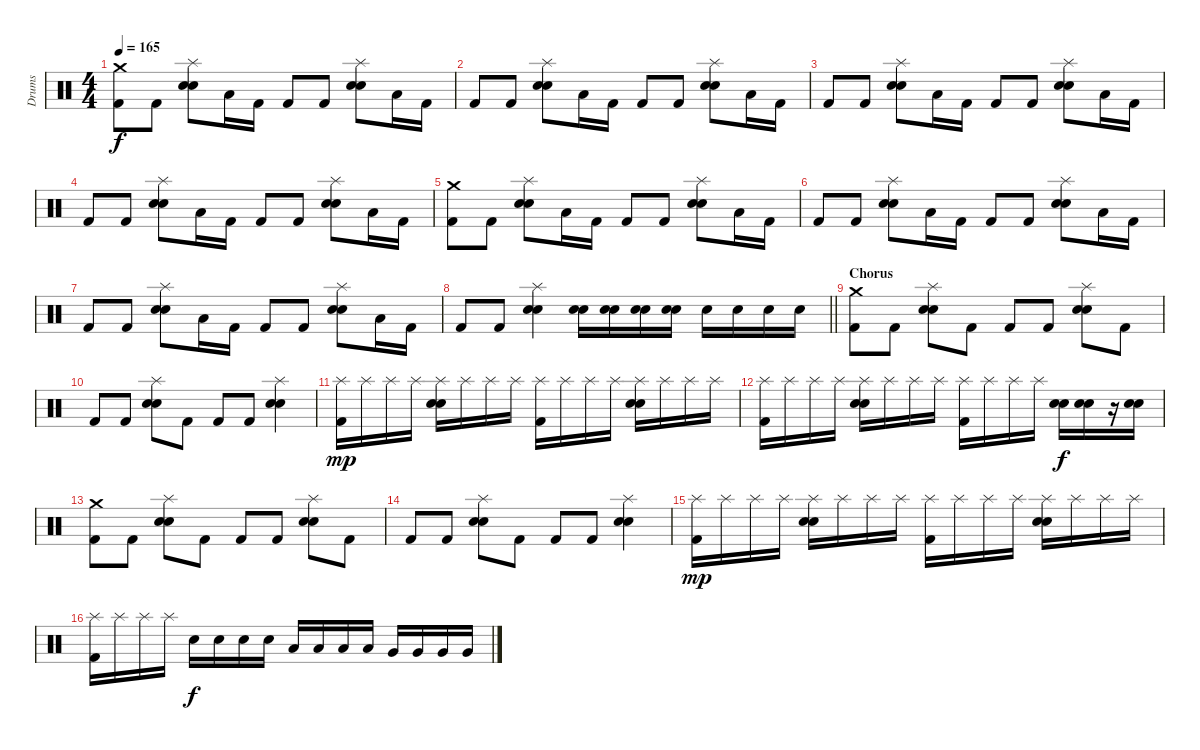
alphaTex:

\track ("Drums" "Drums") {instrument percussion}
\staff {score}
\articulation defaults
\ts (4 4)
\tempo 165
\clef neutral
\ks c
("Crash medium (hit)" "Kick (hit) 2").8{dy f} "Kick (hit) 2".8 ("Splash (hit)" "Electric Snare (hit)" "Snare (hit) 2").8 "Low Tom (hit)".16 "Kick (hit) 2".16 "Kick (hit) 2".8 "Kick (hit) 2".8 ("Splash (hit)" "Electric Snare (hit)" "Snare (hit) 2").8 "Low Tom (hit)".16 "Kick (hit) 2".16 |
"Kick (hit) 2".8 "Kick (hit) 2".8 ("Splash (hit)" "Electric Snare (hit)" "Snare (hit) 2").8 "Low Tom (hit)".16 "Kick (hit) 2".16 "Kick (hit) 2".8 "Kick (hit) 2".8 ("Splash (hit)" "Electric Snare (hit)" "Snare (hit) 2").8 "Low Tom (hit)".16 "Kick (hit) 2".16 |
"Kick (hit) 2".8 "Kick (hit) 2".8 ("Splash (hit)" "Electric Snare (hit)" "Snare (hit) 2").8 "Low Tom (hit)".16 "Kick (hit) 2".16 "Kick (hit) 2".8 "Kick (hit) 2".8 ("Splash (hit)" "Electric Snare (hit)" "Snare (hit) 2").8 "Low Tom (hit)".16 "Kick (hit) 2".16 |
"Kick (hit) 2".8 "Kick (hit) 2".8 ("Splash (hit)" "Electric Snare (hit)" "Snare (hit) 2").8 "Low Tom (hit)".16 "Kick (hit) 2".16 "Kick (hit) 2".8 "Kick (hit) 2".8 ("Splash (hit)" "Electric Snare (hit)" "Snare (hit) 2").8 "Low Tom (hit)".16 "Kick (hit) 2".16 |
("Crash medium (hit)" "Kick (hit) 2").8 "Kick (hit) 2".8 ("Splash (hit)" "Electric Snare (hit)" "Snare (hit) 2").8 "Low Tom (hit)".16 "Kick (hit) 2".16 "Kick (hit) 2".8 "Kick (hit) 2".8 ("Splash (hit)" "Electric Snare (hit)" "Snare (hit) 2").8 "Low Tom (hit)".16 "Kick (hit) 2".16 |
"Kick (hit) 2".8 "Kick (hit) 2".8 ("Splash (hit)" "Electric Snare (hit)" "Snare (hit) 2").8 "Low Tom (hit)".16 "Kick (hit) 2".16 "Kick (hit) 2".8 "Kick (hit) 2".8 ("Splash (hit)" "Electric Snare (hit)" "Snare (hit) 2").8 "Low Tom (hit)".16 "Kick (hit) 2".16 |
"Kick (hit) 2".8 "Kick (hit) 2".8 ("Splash (hit)" "Electric Snare (hit)" "Snare (hit) 2").8 "Low Tom (hit)".16 "Kick (hit) 2".16 "Kick (hit) 2".8 "Kick (hit) 2".8 ("Splash (hit)" "Electric Snare (hit)" "Snare (hit) 2").8 "Low Tom (hit)".16 "Kick (hit) 2".16 |
\barLineRight lightlight "Kick (hit) 2".8 "Kick (hit) 2".8
("Splash (hit)" "Electric Snare (hit)" "Snare (hit) 2").4 ("Electric Snare (hit)" "Snare (hit) 2").16 ("Electric Snare (hit)" "Snare (hit) 2").16 ("Electric Snare (hit)" "Snare (hit) 2").16 ("Electric Snare (hit)" "Snare (hit) 2").16 "Electric Snare (hit)".16 "Electric Snare (hit)".16 "Electric Snare (hit)".16 "Electric Snare (hit)".16 |
\section ("" "Chorus")
("Crash medium (hit)" "Kick (hit) 2").8 "Kick (hit) 2".8 ("Splash (hit)" "Electric Snare (hit)" "Snare (hit) 2").8 "Kick (hit) 2".8 "Kick (hit) 2".8 "Kick (hit) 2".8 ("Splash (hit)" "Electric Snare (hit)" "Snare (hit) 2").8 "Kick (hit) 2".8 |
"Kick (hit) 2".8 "Kick (hit) 2".8 ("Splash (hit)" "Electric Snare (hit)" "Snare (hit) 2").8 "Kick (hit) 2".8 "Kick (hit) 2".8 "Kick (hit) 2".8 ("Splash (hit)" "Electric Snare (hit)" "Snare (hit) 2").4 |
("Splash (hit)" "Kick (hit) 2").16{dy mp} "Splash (hit)".16 "Splash (hit)".16 "Splash (hit)".16 ("Splash (hit)" "Electric Snare (hit)" "Snare (hit) 2").16 "Splash (hit)".16 "Splash (hit)".16 "Splash (hit)".16 ("Splash (hit)" "Kick (hit) 2").16 "Splash (hit)".16 "Splash (hit)".16 "Splash (hit)".16 ("Splash (hit)" "Electric Snare (hit)" "Snare (hit) 2").16 "Splash (hit)".16 "Splash (hit)".16 "Splash (hit)".16 |
("Splash (hit)" "Kick (hit) 2").16 "Splash (hit)".16 "Splash (hit)".16 "Splash (hit)".16 ("Splash (hit)" "Electric Snare (hit)" "Snare (hit) 2").16 "Splash (hit)".16 "Splash (hit)".16 "Splash (hit)".16 ("Splash (hit)" "Kick (hit) 2").16 "Splash (hit)".16 "Splash (hit)".16 "Splash (hit)".16 ("Electric Snare (hit)" "Snare (hit) 2").16{dy f} ("Electric Snare (hit)" "Snare (hit) 2").16 r.16 ("Electric Snare (hit)" "Snare (hit) 2").16 |
("Crash medium (hit)" "Kick (hit) 2").8 "Kick (hit) 2".8 ("Splash (hit)" "Electric Snare (hit)" "Snare (hit) 2").8 "Kick (hit) 2".8 "Kick (hit) 2".8 "Kick (hit) 2".8 ("Splash (hit)" "Electric Snare (hit)" "Snare (hit) 2").8 "Kick (hit) 2".8 |
"Kick (hit) 2".8 "Kick (hit) 2".8 ("Splash (hit)" "Electric Snare (hit)" "Snare (hit) 2").8 "Kick (hit) 2".8 "Kick (hit) 2".8 "Kick (hit) 2".8 ("Splash (hit)" "Electric Snare (hit)" "Snare (hit) 2").4 |
("Splash (hit)" "Kick (hit) 2").16{dy mp} "Splash (hit)".16 "Splash (hit)".16 "Splash (hit)".16 ("Splash (hit)" "Electric Snare (hit)" "Snare (hit) 2").16 "Splash (hit)".16 "Splash (hit)".16 "Splash (hit)".16 ("Splash (hit)" "Kick (hit) 2").16 "Splash (hit)".16 "Splash (hit)".16 "Splash (hit)".16 ("Splash (hit)" "Electric Snare (hit)" "Snare (hit) 2").16 "Splash (hit)".16 "Splash (hit)".16 "Splash (hit)".16 |
("Splash (hit)" "Kick (hit) 2").16 "Splash (hit)".16 "Splash (hit)".16 "Splash (hit)".16 "Electric Snare (hit)".16{dy f} "Electric Snare (hit)".16 "Electric Snare (hit)".16 "Electric Snare (hit)".16 "Low Tom (hit)".16 "Low Tom (hit)".16 "Low Tom (hit)".16 "Low Tom (hit)".16 "Very Low Tom (hit)".16 "Very Low Tom (hit)".16 "Very Low Tom (hit)".16 "Very Low Tom (hit)".16
